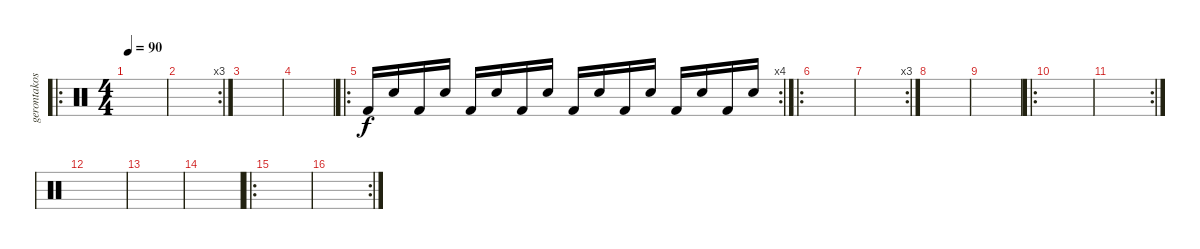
\track ("gerontakos" "gerontakos") {instrument percussion}
\staff {score}
\articulation defaults
\ro
\ts (4 4)
\tempo 90
\clef neutral
\ks c
|
\rc 3
|
|
|
\ro
\rc 4 "Kick (hit) 2".16 "Electric Snare (hit)".16 "Kick (hit) 2".16 "Electric Snare (hit)".16 "Kick (hit) 2".16 "Electric Snare (hit)".16 "Kick (hit) 2".16 "Electric Snare (hit)".16 "Kick (hit) 2".16 "Electric Snare (hit)".16 "Kick (hit) 2".16 "Electric Snare (hit)".16 "Kick (hit) 2".16 "Electric Snare (hit)".16 "Kick (hit) 2".16 "Electric Snare (hit)".16
|
\ro
|
\rc 3
|
|
|
\ro
|
\rc 2
|
|
|
|
\ro
|
\rc 2
